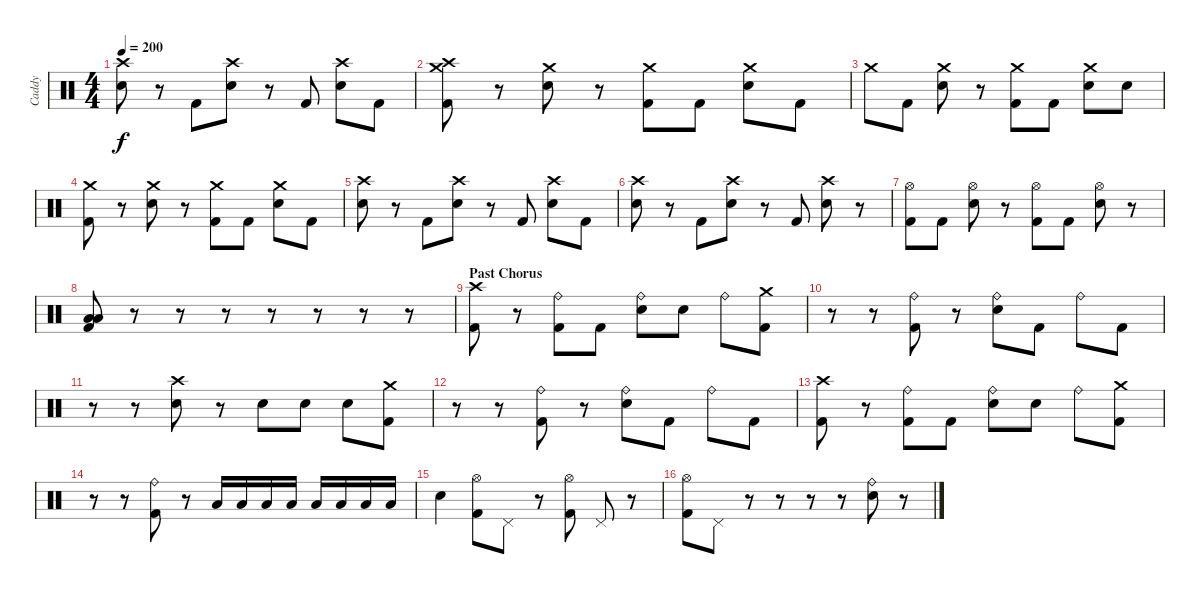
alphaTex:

\track ("Caddy" "Caddy") {instrument percussion}
\staff {score}
\articulation defaults
\ts (4 4)
\tempo 200
\clef neutral
\ks c
("Crash high (hit)" "Electric Snare (hit)").8{dy f} r.8 "Kick (hit) 2".8 ("Crash high (hit)" "Electric Snare (hit)").8 r.8 "Kick (hit) 2".8 ("Crash high (hit)" "Electric Snare (hit)").8 "Kick (hit) 2".8 |
("Crash high (hit)" "Crash medium (hit)" "Kick (hit) 2").8 r.8 ("Crash medium (hit)" "Electric Snare (hit)").8 r.8 ("Crash medium (hit)" "Kick (hit) 2").8 "Kick (hit) 2".8 ("Crash medium (hit)" "Electric Snare (hit)").8 "Kick (hit) 2".8 |
"Crash medium (hit)".8 "Kick (hit) 2".8 ("Crash medium (hit)" "Electric Snare (hit)").8 r.8 ("Crash medium (hit)" "Kick (hit) 2").8 "Kick (hit) 2".8 ("Crash medium (hit)" "Electric Snare (hit)").8 "Electric Snare (hit)".8 |
("Crash medium (hit)" "Kick (hit) 2").8 r.8 ("Crash medium (hit)" "Electric Snare (hit)").8 r.8 ("Crash medium (hit)" "Kick (hit) 2").8 "Kick (hit) 2".8 ("Crash medium (hit)" "Electric Snare (hit)").8 "Kick (hit) 2".8 |
("Crash high (hit)" "Electric Snare (hit)").8 r.8 "Kick (hit) 2".8 ("Crash high (hit)" "Electric Snare (hit)").8 r.8 "Kick (hit) 2".8 ("Crash high (hit)" "Electric Snare (hit)").8 "Kick (hit) 2".8 |
("Crash high (hit)" "Electric Snare (hit)").8 r.8 "Kick (hit) 2".8 ("Crash high (hit)" "Electric Snare (hit)").8 r.8 "Kick (hit) 2".8 ("Crash high (hit)" "Electric Snare (hit)").8 r.8 |
("Hi-Hat (open)" "Kick (hit) 2").8 "Kick (hit) 2".8 ("Hi-Hat (open)" "Electric Snare (hit)").8 r.8 ("Hi-Hat (open)" "Kick (hit) 2").8 "Kick (hit) 2".8 ("Hi-Hat (open)" "Electric Snare (hit)").8 r.8 |
("Low Tom (hit)" "Low Floor Tom (hit)" "Kick (hit) 2").8 r.8 r.8 r.8 r.8 r.8 r.8 r.8 |
\section ("" "Past Chorus")
("Crash high (hit)" "Kick (hit) 2").8 r.8 ("Ride (bell)" "Kick (hit) 2").8 "Kick (hit) 2".8 ("Ride (bell)" "Electric Snare (hit)").8 "Electric Snare (hit)".8 "Ride (bell)".8 ("Crash medium (hit)" "Kick (hit) 2").8 |
r.8 r.8 ("Ride (bell)" "Kick (hit) 2").8 r.8 ("Ride (bell)" "Electric Snare (hit)").8 "Kick (hit) 2".8 "Ride (bell)".8 "Kick (hit) 2".8 |
r.8 r.8 ("Crash high (hit)" "Electric Snare (hit)").8 r.8 "Electric Snare (hit)".8 "Electric Snare (hit)".8 "Electric Snare (hit)".8 ("Crash medium (hit)" "Kick (hit) 2").8 |
r.8 r.8 ("Ride (bell)" "Kick (hit) 2").8 r.8 ("Ride (bell)" "Electric Snare (hit)").8 "Kick (hit) 2".8 "Ride (bell)".8 "Kick (hit) 2".8 |
("Crash high (hit)" "Kick (hit) 2").8 r.8 ("Ride (bell)" "Kick (hit) 2").8 "Kick (hit) 2".8 ("Ride (bell)" "Electric Snare (hit)").8 "Electric Snare (hit)".8 "Ride (bell)".8 ("Crash medium (hit)" "Kick (hit) 2").8 |
r.8 r.8 ("Ride (bell)" "Kick (hit) 2").8 r.8 "Low Tom (hit)".16 "Low Tom (hit)".16 "Low Tom (hit)".16 "Low Tom (hit)".16 "Low Floor Tom (hit)".16 "Low Floor Tom (hit)".16 "Low Floor Tom (hit)".16 "Low Floor Tom (hit)".16 |
"Electric Snare (hit)".4 ("Hi-Hat (open)" "Kick (hit) 2").8 "Pedal Hi-Hat (hit)".8 r.8 ("Hi-Hat (open)" "Kick (hit) 2").8 "Pedal Hi-Hat (hit)".8 r.8 |
("Hi-Hat (open)" "Kick (hit) 2").8 "Pedal Hi-Hat (hit)".8 r.8 r.8 r.8 r.8 ("Ride (bell)" "Electric Snare (hit)").8 r.8
